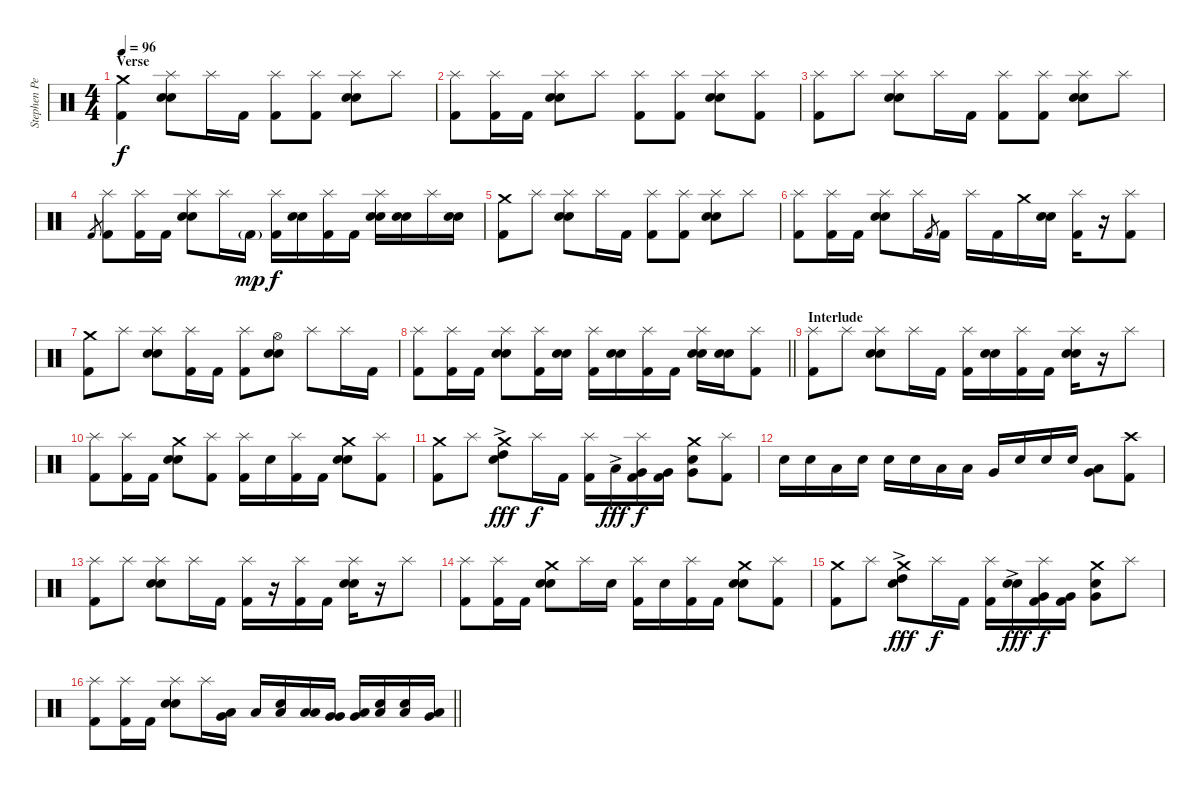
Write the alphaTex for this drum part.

\track ("Stephen Perkins Drums" "Stephen Pe") {instrument percussion}
\staff {score}
\articulation defaults
\ts (4 4)
\section ("" "Verse")
\tempo 96
\clef neutral
\ks c
("Crash medium (hit)" "Kick (hit) 2").4{dy f} ("Splash (hit)" "Snare (hit) 2" "Electric Snare (hit)").8 "Splash (hit)".16 "Kick (hit) 2".16 ("Splash (hit)" "Kick (hit) 2").8 ("Splash (hit)" "Kick (hit) 2").8 ("Splash (hit)" "Snare (hit) 2" "Electric Snare (hit)").8 "Splash (hit)".8 |
("Splash (hit)" "Kick (hit) 2").8 ("Splash (hit)" "Kick (hit) 2").16 "Kick (hit) 2".16 ("Splash (hit)" "Snare (hit) 2" "Electric Snare (hit)").8 "Splash (hit)".8 ("Splash (hit)" "Kick (hit) 2").8 ("Splash (hit)" "Kick (hit) 2").8 ("Splash (hit)" "Snare (hit) 2" "Electric Snare (hit)").8 ("Splash (hit)" "Kick (hit) 2").8 |
("Splash (hit)" "Kick (hit) 2").8 "Splash (hit)".8 ("Splash (hit)" "Snare (hit) 2" "Electric Snare (hit)").8 "Splash (hit)".16 "Kick (hit) 2".16 ("Splash (hit)" "Kick (hit) 2").8 ("Splash (hit)" "Kick (hit) 2").8 ("Splash (hit)" "Snare (hit) 2" "Electric Snare (hit)").8 "Splash (hit)".8 |
"Kick (hit) 2".8{gr} ("Splash (hit)" "Kick (hit) 2").8 ("Splash (hit)" "Kick (hit) 2").16 "Kick (hit) 2".16 ("Splash (hit)" "Snare (hit) 2" "Electric Snare (hit)").8 "Splash (hit)".16 "Kick (hit) 2"{g}.16{dy mp} ("Splash (hit)" "Kick (hit) 2").16{dy f} ("Snare (hit) 2" "Electric Snare (hit)").16 ("Splash (hit)" "Kick (hit) 2").16 "Kick (hit) 2".16 ("Splash (hit)" "Snare (hit) 2" "Electric Snare (hit)").16 ("Snare (hit) 2" "Electric Snare (hit)").16 "Splash (hit)".16 ("Snare (hit) 2" "Electric Snare (hit)").16 |
("Crash medium (hit)" "Kick (hit) 2").8 "Splash (hit)".8 ("Splash (hit)" "Snare (hit) 2" "Electric Snare (hit)").8 "Splash (hit)".16 "Kick (hit) 2".16 ("Splash (hit)" "Kick (hit) 2").8 ("Splash (hit)" "Kick (hit) 2").8 ("Splash (hit)" "Snare (hit) 2" "Electric Snare (hit)").8 "Splash (hit)".8 |
("Splash (hit)" "Kick (hit) 2").8 ("Splash (hit)" "Kick (hit) 2").16 "Kick (hit) 2".16 ("Splash (hit)" "Snare (hit) 2" "Electric Snare (hit)").8 "Splash (hit)".16 "Kick (hit) 2".8{gr} "Kick (hit) 2".16 "Splash (hit)".16 "Kick (hit) 2".16 "Crash medium (hit)".16 ("Snare (hit) 2" "Electric Snare (hit)").16 ("Splash (hit)" "Kick (hit) 2").16 r.16 ("Splash (hit)" "Kick (hit) 2").8 |
("Crash medium (hit)" "Kick (hit) 2").8 "Splash (hit)".8 ("Splash (hit)" "Snare (hit) 2" "Electric Snare (hit)").8 ("Splash (hit)" "Kick (hit) 2").16 "Kick (hit) 2".16 ("Splash (hit)" "Kick (hit) 2").8 ("Hi-Hat (open)" "Snare (hit) 2" "Electric Snare (hit)").8 "Splash (hit)".8 "Splash (hit)".16 "Kick (hit) 2".16 |
\barLineRight lightlight
("Splash (hit)" "Kick (hit) 2").8 ("Splash (hit)" "Kick (hit) 2").16 "Kick (hit) 2".16 ("Splash (hit)" "Snare (hit) 2" "Electric Snare (hit)").8 ("Splash (hit)" "Kick (hit) 2").16 ("Snare (hit) 2" "Electric Snare (hit)").16 ("Splash (hit)" "Kick (hit) 2").16 ("Snare (hit) 2" "Electric Snare (hit)").16 ("Splash (hit)" "Kick (hit) 2").16 "Kick (hit) 2".16 ("Splash (hit)" "Snare (hit) 2" "Electric Snare (hit)").16 ("Snare (hit) 2" "Electric Snare (hit)").16 ("Splash (hit)" "Kick (hit) 2").8 |
\section ("" "Interlude")
("Splash (hit)" "Kick (hit) 2").8 "Splash (hit)".8 ("Splash (hit)" "Snare (hit) 2" "Electric Snare (hit)").8 "Splash (hit)".16 "Kick (hit) 2".16 ("Splash (hit)" "Kick (hit) 2").16 ("Snare (hit) 2" "Electric Snare (hit)").16 ("Splash (hit)" "Kick (hit) 2").16 "Kick (hit) 2".16 ("Splash (hit)" "Snare (hit) 2" "Electric Snare (hit)").16 r.16 "Splash (hit)".8 |
("Splash (hit)" "Kick (hit) 2").8 ("Splash (hit)" "Kick (hit) 2").16 "Kick (hit) 2".16 ("Crash medium (hit)" "Snare (hit) 2" "Electric Snare (hit)").8 ("Splash (hit)" "Kick (hit) 2").8 ("Splash (hit)" "Kick (hit) 2").16 "Electric Snare (hit)".16 ("Splash (hit)" "Kick (hit) 2").16 "Kick (hit) 2".16 ("Crash medium (hit)" "Snare (hit) 2" "Electric Snare (hit)").8 ("Splash (hit)" "Kick (hit) 2").8 |
("Crash medium (hit)" "Kick (hit) 2").8 "Splash (hit)".8 ("Crash medium (hit)" "Electric Snare (hit)" "High Tom (hit)"{ac}).8{dy fff} "Splash (hit)".16{dy f} "Kick (hit) 2".16 ("Splash (hit)" "Kick (hit) 2").16 "Low Tom (hit)"{ac}.16{dy fff} ("Splash (hit)" "Very Low Tom (hit)" "Kick (hit) 2").16{dy f} ("Very Low Tom (hit)" "Kick (hit) 2").16 ("Crash medium (hit)" "Electric Snare (hit)" "Very Low Tom (hit)").8 ("Splash (hit)" "Kick (hit) 2").8 |
"Electric Snare (hit)".16 "Electric Snare (hit)".16 "Low Tom (hit)".16 "Electric Snare (hit)".16 "Electric Snare (hit)".16 "Electric Snare (hit)".16 "Low Tom (hit)".16 "Low Tom (hit)".16 "Very Low Tom (hit)".16 "Electric Snare (hit)".16 "Electric Snare (hit)".16 "Electric Snare (hit)".16 ("Very Low Tom (hit)" "Low Floor Tom (hit)").8 ("Crash high (hit)" "Kick (hit) 2").8 |
("Splash (hit)" "Kick (hit) 2").8 "Splash (hit)".8 ("Splash (hit)" "Snare (hit) 2" "Electric Snare (hit)").8 "Splash (hit)".16 "Kick (hit) 2".16 ("Splash (hit)" "Kick (hit) 2").16 r.16 ("Splash (hit)" "Kick (hit) 2").16 "Kick (hit) 2".16 ("Splash (hit)" "Snare (hit) 2" "Electric Snare (hit)").16 r.16 "Splash (hit)".8 |
("Splash (hit)" "Kick (hit) 2").8 ("Splash (hit)" "Kick (hit) 2").16 "Kick (hit) 2".16 ("Crash medium (hit)" "Snare (hit) 2" "Electric Snare (hit)").8 "Splash (hit)".16 "Electric Snare (hit)".16 ("Splash (hit)" "Kick (hit) 2").16 "Electric Snare (hit)".16 ("Splash (hit)" "Kick (hit) 2").16 "Kick (hit) 2".16 ("Crash medium (hit)" "Snare (hit) 2" "Electric Snare (hit)").8 ("Splash (hit)" "Kick (hit) 2").8 |
("Crash medium (hit)" "Kick (hit) 2").8 "Splash (hit)".8 ("Crash medium (hit)" "Electric Snare (hit)" "High Tom (hit)"{ac}).8{dy fff} "Splash (hit)".16{dy f} "Kick (hit) 2".16 ("Splash (hit)" "Kick (hit) 2").16 ("Snare (hit) 2" "Electric Snare (hit)"{ac}).16{dy fff} ("Splash (hit)" "Very Low Tom (hit)" "Kick (hit) 2").16{dy f} ("Very Low Tom (hit)" "Kick (hit) 2").16 ("Crash medium (hit)" "Electric Snare (hit)" "Very Low Tom (hit)").8 "Splash (hit)".8 |
\barLineRight lightlight
("Splash (hit)" "Kick (hit) 2").8 ("Splash (hit)" "Kick (hit) 2").16 "Kick (hit) 2".16 ("Splash (hit)" "Snare (hit) 2" "Electric Snare (hit)").8 "Splash (hit)".16 ("Very Low Tom (hit)" "Low Floor Tom (hit)").16 "Low Floor Tom (hit)".16 ("Electric Snare (hit)" "Low Tom (hit)").16 ("Low Tom (hit)" "Low Tom (hit)").16 ("Very Low Tom (hit)" "Very Low Tom (hit)").16 ("Very Low Tom (hit)" "Low Floor Tom (hit)").16 ("Electric Snare (hit)" "Low Floor Tom (hit)").16 ("Electric Snare (hit)" "Low Tom (hit)").16 ("Very Low Tom (hit)" "Low Tom (hit)").16
